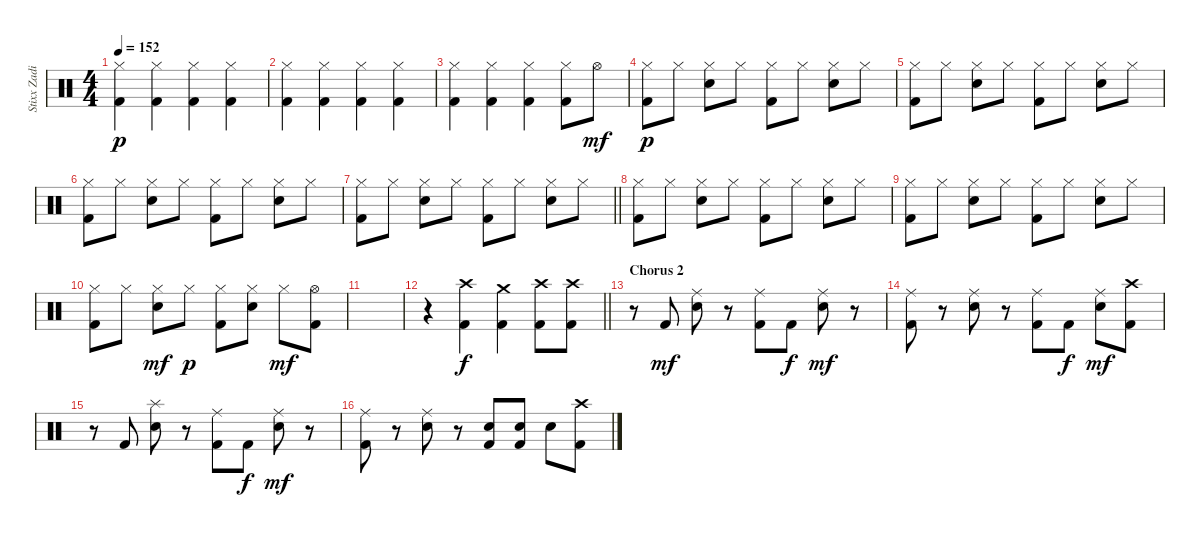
\track ("Stixx Zadinia" "Stixx Zadi") {instrument percussion}
\staff {score}
\articulation defaults
\ts (4 4)
\tempo 152
\clef neutral
\ks c
("Hi-Hat (closed)" "Kick (hit) 2").4{dy p} ("Hi-Hat (closed)" "Kick (hit) 2").4 ("Hi-Hat (closed)" "Kick (hit) 2").4 ("Hi-Hat (closed)" "Kick (hit) 2").4 |
("Hi-Hat (closed)" "Kick (hit) 2").4 ("Hi-Hat (closed)" "Kick (hit) 2").4 ("Hi-Hat (closed)" "Kick (hit) 2").4 ("Hi-Hat (closed)" "Kick (hit) 2").4 |
("Hi-Hat (closed)" "Kick (hit) 2").4 ("Hi-Hat (closed)" "Kick (hit) 2").4 ("Hi-Hat (closed)" "Kick (hit) 2").4 ("Hi-Hat (closed)" "Kick (hit) 2").8 "Hi-Hat (open)".8{dy mf} |
("Hi-Hat (closed)" "Kick (hit) 2").8{dy p} "Hi-Hat (closed)".8 ("Hi-Hat (closed)" "Snare (hit) 2").8 "Hi-Hat (closed)".8 ("Hi-Hat (closed)" "Kick (hit) 2").8 "Hi-Hat (closed)".8 ("Hi-Hat (closed)" "Snare (hit) 2").8 "Hi-Hat (closed)".8 |
("Hi-Hat (closed)" "Kick (hit) 2").8 "Hi-Hat (closed)".8 ("Hi-Hat (closed)" "Snare (hit) 2").8 "Hi-Hat (closed)".8 ("Hi-Hat (closed)" "Kick (hit) 2").8 "Hi-Hat (closed)".8 ("Hi-Hat (closed)" "Snare (hit) 2").8 "Hi-Hat (closed)".8 |
("Hi-Hat (closed)" "Kick (hit) 2").8 "Hi-Hat (closed)".8 ("Hi-Hat (closed)" "Snare (hit) 2").8 "Hi-Hat (closed)".8 ("Hi-Hat (closed)" "Kick (hit) 2").8 "Hi-Hat (closed)".8 ("Hi-Hat (closed)" "Snare (hit) 2").8 "Hi-Hat (closed)".8 |
\barLineRight lightlight
("Hi-Hat (closed)" "Kick (hit) 2").8 "Hi-Hat (closed)".8 ("Hi-Hat (closed)" "Snare (hit) 2").8 "Hi-Hat (closed)".8 ("Hi-Hat (closed)" "Kick (hit) 2").8 "Hi-Hat (closed)".8 ("Hi-Hat (closed)" "Snare (hit) 2").8 "Hi-Hat (closed)".8 |
("Hi-Hat (closed)" "Kick (hit) 2").8 "Hi-Hat (closed)".8 ("Hi-Hat (closed)" "Snare (hit) 2").8 "Hi-Hat (closed)".8 ("Hi-Hat (closed)" "Kick (hit) 2").8 "Hi-Hat (closed)".8 ("Hi-Hat (closed)" "Snare (hit) 2").8 "Hi-Hat (closed)".8 |
("Hi-Hat (closed)" "Kick (hit) 2").8 "Hi-Hat (closed)".8 ("Hi-Hat (closed)" "Snare (hit) 2").8 "Hi-Hat (closed)".8 ("Hi-Hat (closed)" "Kick (hit) 2").8 "Hi-Hat (closed)".8 ("Hi-Hat (closed)" "Snare (hit) 2").8 "Hi-Hat (closed)".8 |
("Hi-Hat (closed)" "Kick (hit) 2").8 "Hi-Hat (closed)".8 ("Hi-Hat (closed)" "Snare (hit) 2").8{dy mf} "Hi-Hat (closed)".8{dy p} ("Hi-Hat (closed)" "Kick (hit) 2").8 ("Hi-Hat (closed)" "Snare (hit) 2").8 "Hi-Hat (closed)".8{dy mf} ("Hi-Hat (open)" "Kick (hit) 2").8 |
|
\barLineRight lightlight
r.4 ("Crash high (hit)" "Kick (hit) 2").4{dy f} ("Crash medium (hit)" "Kick (hit) 2").4 ("Crash high (hit)" "Kick (hit) 2").8 ("Crash high (hit)" "Kick (hit) 2").8 |
\section ("" "Chorus 2")
r.8 "Kick (hit) 2".8{dy mf} ("Ride (middle)" "Snare (hit) 2").8 r.8 ("Ride (middle)" "Kick (hit) 2").8 "Kick (hit) 2".8{dy f} ("Ride (middle)" "Snare (hit) 2").8{dy mf} r.8 |
("Ride (middle)" "Kick (hit) 2").8 r.8 ("Ride (middle)" "Snare (hit) 2").8 r.8 ("Ride (middle)" "Kick (hit) 2").8 "Kick (hit) 2".8{dy f} ("Ride (middle)" "Snare (hit) 2").8{dy mf} ("Crash high (hit)" "Kick (hit) 2").8 |
r.8 "Kick (hit) 2".8 ("Splash (hit)" "Snare (hit) 2").8 r.8 ("Ride (middle)" "Kick (hit) 2").8 "Kick (hit) 2".8{dy f} ("Ride (middle)" "Snare (hit) 2").8{dy mf} r.8 |
("Ride (middle)" "Kick (hit) 2").8 r.8 ("Ride (middle)" "Snare (hit) 2").8 r.8 ("Snare (hit) 2" "Kick (hit) 2").8 ("Snare (hit) 2" "Kick (hit) 2").8 "Snare (hit) 2".8 ("Crash high (hit)" "Kick (hit) 2").8
